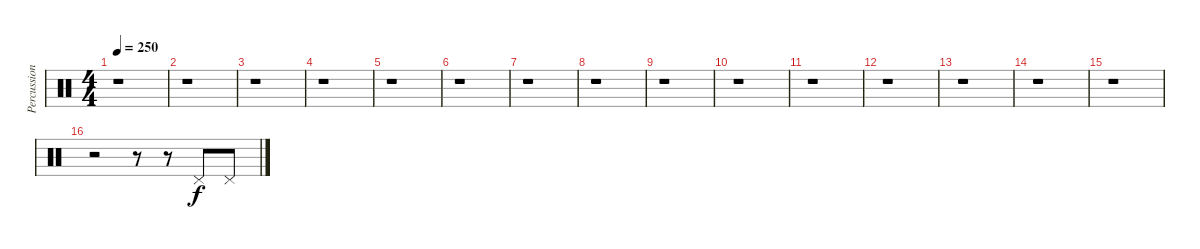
\track ("Percussions" "Percussion") {instrument percussion}
\staff {score}
\articulation defaults
\ts (4 4)
\tempo 250
\clef neutral
\ks c
r.1{dy f} |
r.1 |
r.1 |
r.1 |
r.1 |
r.1 |
r.1 |
r.1 |
r.1 |
r.1 |
r.1 |
r.1 |
r.1 |
r.1 |
r.1 |
r.2 r.8 r.8 "Pedal Hi-Hat (hit)".8 "Pedal Hi-Hat (hit)".8
